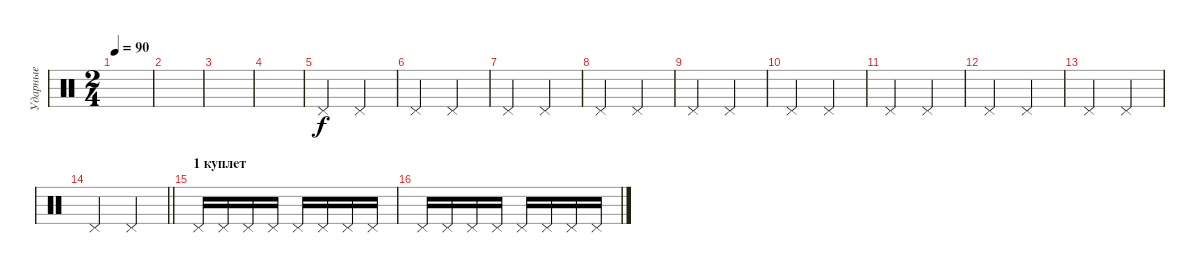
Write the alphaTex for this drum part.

\track ("Ударные" "Ударные") {instrument percussion}
\staff {score}
\articulation defaults
\ts (2 4)
\tempo 90
\clef neutral
\ks c
|
|
|
|
"Pedal Hi-Hat (hit)".4 "Pedal Hi-Hat (hit)".4 |
"Pedal Hi-Hat (hit)".4 "Pedal Hi-Hat (hit)".4 |
"Pedal Hi-Hat (hit)".4 "Pedal Hi-Hat (hit)".4 |
"Pedal Hi-Hat (hit)".4 "Pedal Hi-Hat (hit)".4 |
"Pedal Hi-Hat (hit)".4 "Pedal Hi-Hat (hit)".4 |
"Pedal Hi-Hat (hit)".4 "Pedal Hi-Hat (hit)".4 |
"Pedal Hi-Hat (hit)".4 "Pedal Hi-Hat (hit)".4 |
"Pedal Hi-Hat (hit)".4 "Pedal Hi-Hat (hit)".4 |
"Pedal Hi-Hat (hit)".4 "Pedal Hi-Hat (hit)".4 |
\barLineRight lightlight "Pedal Hi-Hat (hit)".4 "Pedal Hi-Hat (hit)".4
|
\section ("" "1 куплет")
"Pedal Hi-Hat (hit)".16 "Pedal Hi-Hat (hit)".16 "Pedal Hi-Hat (hit)".16 "Pedal Hi-Hat (hit)".16 "Pedal Hi-Hat (hit)".16 "Pedal Hi-Hat (hit)".16 "Pedal Hi-Hat (hit)".16 "Pedal Hi-Hat (hit)".16 |
"Pedal Hi-Hat (hit)".16 "Pedal Hi-Hat (hit)".16 "Pedal Hi-Hat (hit)".16 "Pedal Hi-Hat (hit)".16 "Pedal Hi-Hat (hit)".16 "Pedal Hi-Hat (hit)".16 "Pedal Hi-Hat (hit)".16 "Pedal Hi-Hat (hit)".16
